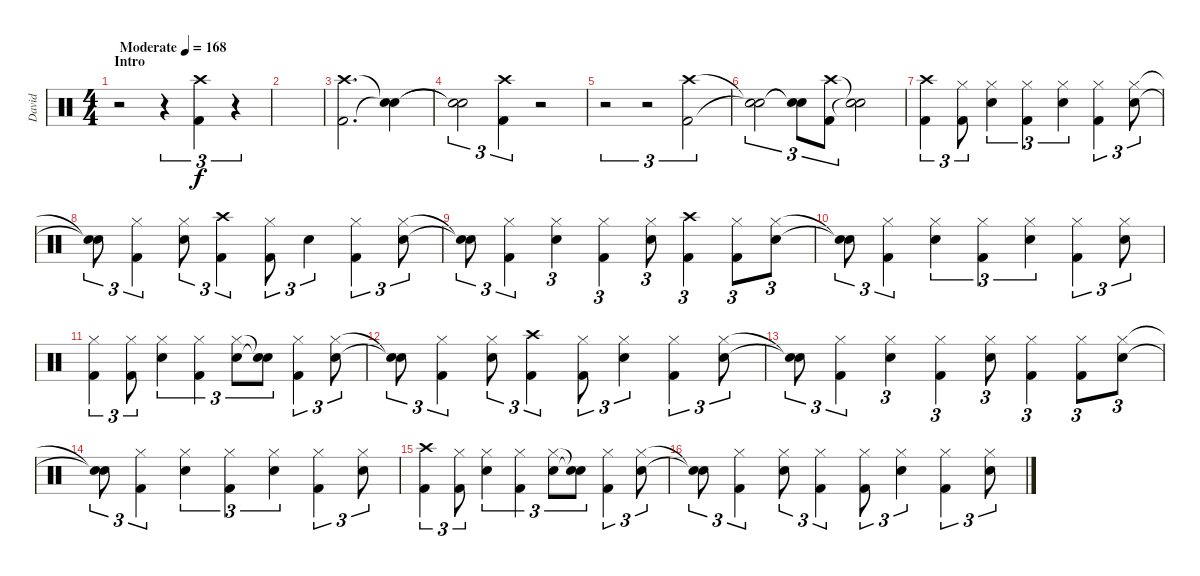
\track ("David" "David") {instrument percussion}
\staff {score}
\articulation defaults
\ts (4 4)
\section ("" "Intro")
\tempo (168 "Moderate")
\clef neutral
\ks c
r.2{dy f} r.4{tu (3 2)} ("Crash high (hit)" "Kick (hit) 2").4{tu (3 2)} r.4{tu (3 2)} |
|
("Crash high (hit)" "Kick (hit) 2").2{d} ("Snare (hit)"{t} "Snare (hit)"{t}).4 |
("Snare (hit)"{t} "Snare (hit)"{t}).2{tu (3 2)} ("Crash high (hit)" "Kick (hit) 2").4{tu (3 2)} r.2 |
r.2{tu (3 2)} r.2{tu (3 2)} ("Crash high (hit)" "Kick (hit) 2").2{tu (3 2)} |
("Snare (hit)"{t} "Snare (hit)"{t}).2{tu (3 2)} ("Snare (hit)"{t} "Snare (hit)"{t}).8{tu (3 2)} ("Crash high (hit)" "Kick (hit) 2").8{tu (3 2)} ("Snare (hit)"{t} "Snare (hit)"{t}).2 |
("Crash high (hit)" "Kick (hit) 2").4{tu (3 2)} ("Hi-Hat (closed)" "Kick (hit) 2").8{tu (3 2)} ("Hi-Hat (closed)" "Snare (hit) 2").4{tu (3 2)} ("Hi-Hat (closed)" "Kick (hit) 2").4{tu (3 2)} ("Hi-Hat (closed)" "Snare (hit) 2").4{tu (3 2)} ("Hi-Hat (closed)" "Kick (hit) 2").4{tu (3 2)} ("Hi-Hat (closed)" "Snare (hit) 2").8{tu (3 2)} |
("Snare (hit)"{t} "Snare (hit)"{t}).8{tu (3 2)} ("Hi-Hat (closed)" "Kick (hit) 2").4{tu (3 2)} ("Hi-Hat (closed)" "Snare (hit) 2").8{tu (3 2)} ("Crash high (hit)" "Kick (hit) 2").4{tu (3 2)} ("Hi-Hat (closed)" "Kick (hit) 2").8{tu (3 2)} "Snare (hit) 2".4{tu (3 2)} ("Hi-Hat (closed)" "Kick (hit) 2").4{tu (3 2)} ("Hi-Hat (closed)" "Snare (hit) 2").8{tu (3 2)} |
("Snare (hit)"{t} "Snare (hit)"{t}).8{tu (3 2)} ("Hi-Hat (closed)" "Kick (hit) 2").4{tu (3 2)} ("Hi-Hat (closed)" "Snare (hit) 2").4{tu (3 2)} ("Hi-Hat (closed)" "Kick (hit) 2").4{tu (3 2)} ("Hi-Hat (closed)" "Snare (hit) 2").8{tu (3 2)} ("Crash high (hit)" "Kick (hit) 2").4{tu (3 2)} ("Hi-Hat (closed)" "Kick (hit) 2").8{tu (3 2)} ("Hi-Hat (closed)" "Snare (hit) 2").8{tu (3 2)} |
("Snare (hit)"{t} "Snare (hit)"{t}).8{tu (3 2)} ("Hi-Hat (closed)" "Kick (hit) 2").4{tu (3 2)} ("Hi-Hat (closed)" "Snare (hit) 2").4{tu (3 2)} ("Hi-Hat (closed)" "Kick (hit) 2").4{tu (3 2)} ("Hi-Hat (closed)" "Snare (hit) 2").4{tu (3 2)} ("Hi-Hat (closed)" "Kick (hit) 2").4{tu (3 2)} ("Hi-Hat (closed)" "Snare (hit) 2").8{tu (3 2)} |
("Hi-Hat (closed)" "Kick (hit) 2").4{tu (3 2)} ("Hi-Hat (closed)" "Kick (hit) 2").8{tu (3 2)} ("Hi-Hat (closed)" "Snare (hit) 2").4{tu (3 2)} ("Hi-Hat (closed)" "Kick (hit) 2").4{tu (3 2)} ("Hi-Hat (closed)" "Snare (hit) 2").8{tu (3 2)} ("Snare (hit)"{t} "Snare (hit)"{t}).8{tu (3 2)} ("Hi-Hat (closed)" "Kick (hit) 2").4{tu (3 2)} ("Hi-Hat (closed)" "Snare (hit) 2").8{tu (3 2)} |
("Snare (hit)"{t} "Snare (hit)"{t}).8{tu (3 2)} ("Hi-Hat (closed)" "Kick (hit) 2").4{tu (3 2)} ("Hi-Hat (closed)" "Snare (hit) 2").8{tu (3 2)} ("Crash high (hit)" "Kick (hit) 2").4{tu (3 2)} ("Hi-Hat (closed)" "Kick (hit) 2").8{tu (3 2)} ("Hi-Hat (closed)" "Snare (hit) 2").4{tu (3 2)} ("Hi-Hat (closed)" "Kick (hit) 2").4{tu (3 2)} ("Hi-Hat (closed)" "Snare (hit) 2").8{tu (3 2)} |
("Snare (hit)"{t} "Snare (hit)"{t}).8{tu (3 2)} ("Hi-Hat (closed)" "Kick (hit) 2").4{tu (3 2)} ("Hi-Hat (closed)" "Snare (hit) 2").4{tu (3 2)} ("Hi-Hat (closed)" "Kick (hit) 2").4{tu (3 2)} ("Hi-Hat (closed)" "Snare (hit) 2").8{tu (3 2)} ("Hi-Hat (closed)" "Kick (hit) 2").4{tu (3 2)} ("Hi-Hat (closed)" "Kick (hit) 2").8{tu (3 2)} ("Hi-Hat (closed)" "Snare (hit) 2").8{tu (3 2)} |
("Snare (hit)"{t} "Snare (hit)"{t}).8{tu (3 2)} ("Hi-Hat (closed)" "Kick (hit) 2").4{tu (3 2)} ("Hi-Hat (closed)" "Snare (hit) 2").4{tu (3 2)} ("Hi-Hat (closed)" "Kick (hit) 2").4{tu (3 2)} ("Hi-Hat (closed)" "Snare (hit) 2").4{tu (3 2)} ("Hi-Hat (closed)" "Kick (hit) 2").4{tu (3 2)} ("Hi-Hat (closed)" "Snare (hit) 2").8{tu (3 2)} |
("Crash high (hit)" "Kick (hit) 2").4{tu (3 2)} ("Hi-Hat (closed)" "Kick (hit) 2").8{tu (3 2)} ("Hi-Hat (closed)" "Snare (hit) 2").4{tu (3 2)} ("Hi-Hat (closed)" "Kick (hit) 2").4{tu (3 2)} ("Hi-Hat (closed)" "Snare (hit) 2").8{tu (3 2)} ("Snare (hit)"{t} "Snare (hit)"{t}).8{tu (3 2)} ("Hi-Hat (closed)" "Kick (hit) 2").4{tu (3 2)} ("Hi-Hat (closed)" "Snare (hit) 2").8{tu (3 2)} |
("Snare (hit)"{t} "Snare (hit)"{t}).8{tu (3 2)} ("Hi-Hat (closed)" "Kick (hit) 2").4{tu (3 2)} ("Hi-Hat (closed)" "Snare (hit) 2").8{tu (3 2)} ("Hi-Hat (closed)" "Kick (hit) 2").4{tu (3 2)} ("Hi-Hat (closed)" "Kick (hit) 2").8{tu (3 2)} ("Hi-Hat (closed)" "Snare (hit) 2").4{tu (3 2)} ("Hi-Hat (closed)" "Kick (hit) 2").4{tu (3 2)} ("Hi-Hat (closed)" "Snare (hit) 2").8{tu (3 2)}
